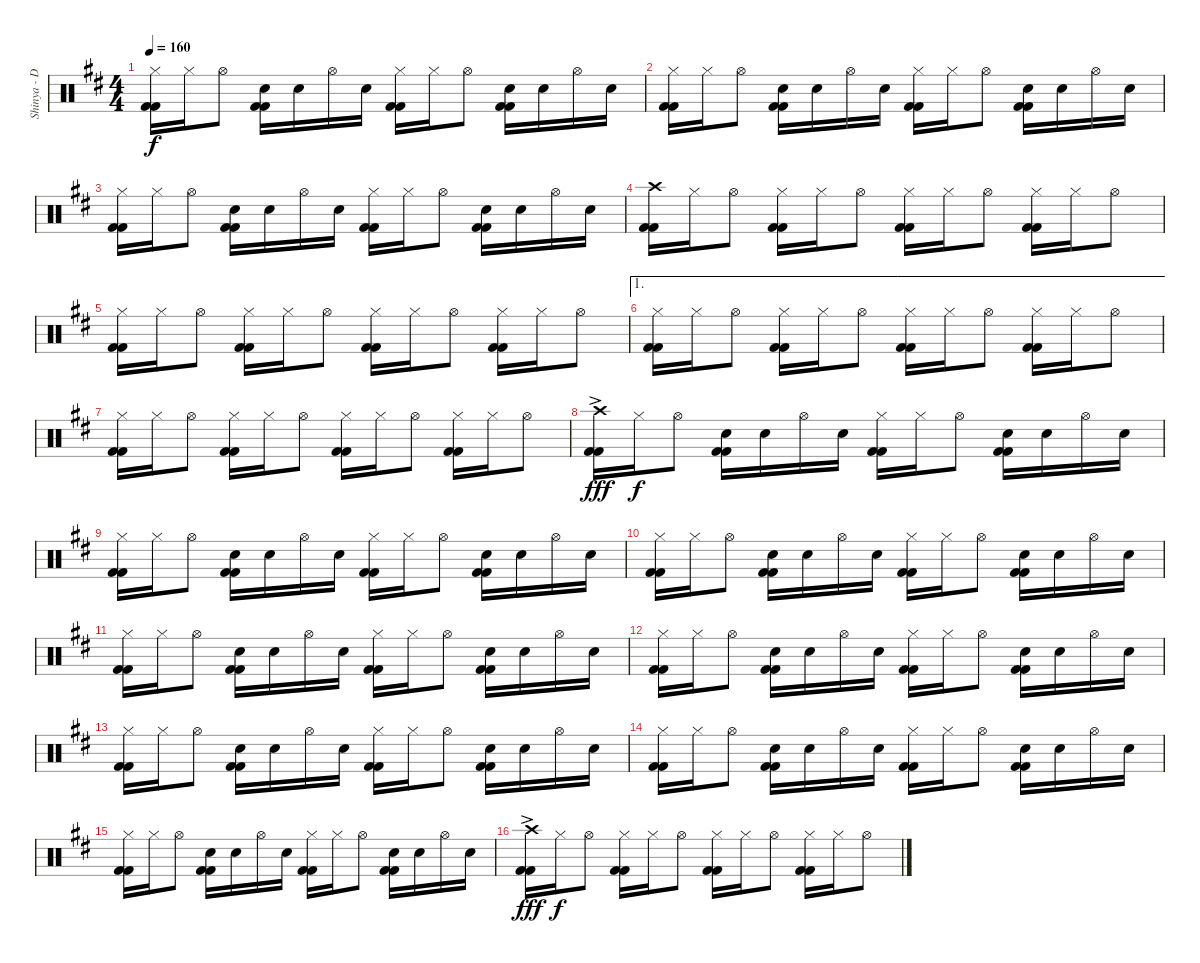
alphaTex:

\track ("Shinya - Drums" "Shinya - D") {instrument percussion}
\staff {score}
\articulation defaults
\ts (4 4)
\tempo 160
\clef neutral
\ks d
("Hi-Hat (closed)" "Kick (hit) 2" "Kick (hit) 2").16{dy f} "Hi-Hat (closed)".16 "Hi-Hat (open)".8 ("Snare (hit) 2" "Kick (hit) 2" "Kick (hit) 2").16 "Snare (hit) 2".16 "Hi-Hat (open)".16 "Snare (hit) 2".16 ("Hi-Hat (closed)" "Kick (hit) 2" "Kick (hit) 2").16 "Hi-Hat (closed)".16 "Hi-Hat (open)".8 ("Snare (hit) 2" "Kick (hit) 2" "Kick (hit) 2").16 "Snare (hit) 2".16 "Hi-Hat (open)".16 "Snare (hit) 2".16 |
("Hi-Hat (closed)" "Kick (hit) 2" "Kick (hit) 2").16 "Hi-Hat (closed)".16 "Hi-Hat (open)".8 ("Snare (hit) 2" "Kick (hit) 2" "Kick (hit) 2").16 "Snare (hit) 2".16 "Hi-Hat (open)".16 "Snare (hit) 2".16 ("Hi-Hat (closed)" "Kick (hit) 2" "Kick (hit) 2").16 "Hi-Hat (closed)".16 "Hi-Hat (open)".8 ("Snare (hit) 2" "Kick (hit) 2" "Kick (hit) 2").16 "Snare (hit) 2".16 "Hi-Hat (open)".16 "Snare (hit) 2".16 |
("Hi-Hat (closed)" "Kick (hit) 2" "Kick (hit) 2").16 "Hi-Hat (closed)".16 "Hi-Hat (open)".8 ("Snare (hit) 2" "Kick (hit) 2" "Kick (hit) 2").16 "Snare (hit) 2".16 "Hi-Hat (open)".16 "Snare (hit) 2".16 ("Hi-Hat (closed)" "Kick (hit) 2" "Kick (hit) 2").16 "Hi-Hat (closed)".16 "Hi-Hat (open)".8 ("Snare (hit) 2" "Kick (hit) 2" "Kick (hit) 2").16 "Snare (hit) 2".16 "Hi-Hat (open)".16 "Snare (hit) 2".16 |
("Crash high (hit)" "Kick (hit) 2" "Kick (hit) 2").16 "Hi-Hat (closed)".16 "Hi-Hat (open)".8 ("Hi-Hat (closed)" "Kick (hit) 2" "Kick (hit) 2").16 "Hi-Hat (closed)".16 "Hi-Hat (open)".8 ("Hi-Hat (closed)" "Kick (hit) 2" "Kick (hit) 2").16 "Hi-Hat (closed)".16 "Hi-Hat (open)".8 ("Hi-Hat (closed)" "Kick (hit) 2" "Kick (hit) 2").16 "Hi-Hat (closed)".16 "Hi-Hat (open)".8 |
("Hi-Hat (closed)" "Kick (hit) 2" "Kick (hit) 2").16 "Hi-Hat (closed)".16 "Hi-Hat (open)".8 ("Hi-Hat (closed)" "Kick (hit) 2" "Kick (hit) 2").16 "Hi-Hat (closed)".16 "Hi-Hat (open)".8 ("Hi-Hat (closed)" "Kick (hit) 2" "Kick (hit) 2").16 "Hi-Hat (closed)".16 "Hi-Hat (open)".8 ("Hi-Hat (closed)" "Kick (hit) 2" "Kick (hit) 2").16 "Hi-Hat (closed)".16 "Hi-Hat (open)".8 |
\ae 1
("Hi-Hat (closed)" "Kick (hit) 2" "Kick (hit) 2").16 "Hi-Hat (closed)".16 "Hi-Hat (open)".8 ("Hi-Hat (closed)" "Kick (hit) 2" "Kick (hit) 2").16 "Hi-Hat (closed)".16 "Hi-Hat (open)".8 ("Hi-Hat (closed)" "Kick (hit) 2" "Kick (hit) 2").16 "Hi-Hat (closed)".16 "Hi-Hat (open)".8 ("Hi-Hat (closed)" "Kick (hit) 2" "Kick (hit) 2").16 "Hi-Hat (closed)".16 "Hi-Hat (open)".8 |
("Hi-Hat (closed)" "Kick (hit) 2" "Kick (hit) 2").16 "Hi-Hat (closed)".16 "Hi-Hat (open)".8 ("Hi-Hat (closed)" "Kick (hit) 2" "Kick (hit) 2").16 "Hi-Hat (closed)".16 "Hi-Hat (open)".8 ("Hi-Hat (closed)" "Kick (hit) 2" "Kick (hit) 2").16 "Hi-Hat (closed)".16 "Hi-Hat (open)".8 ("Hi-Hat (closed)" "Kick (hit) 2" "Kick (hit) 2").16 "Hi-Hat (closed)".16 "Hi-Hat (open)".8 |
("Crash high (hit)"{ac} "Kick (hit) 2" "Kick (hit) 2").16{dy fff} "Hi-Hat (closed)".16{dy f} "Hi-Hat (open)".8 ("Snare (hit) 2" "Kick (hit) 2" "Kick (hit) 2").16 "Snare (hit) 2".16 "Hi-Hat (open)".16 "Snare (hit) 2".16 ("Hi-Hat (closed)" "Kick (hit) 2" "Kick (hit) 2").16 "Hi-Hat (closed)".16 "Hi-Hat (open)".8 ("Snare (hit) 2" "Kick (hit) 2" "Kick (hit) 2").16 "Snare (hit) 2".16 "Hi-Hat (open)".16 "Snare (hit) 2".16 |
("Hi-Hat (closed)" "Kick (hit) 2" "Kick (hit) 2").16 "Hi-Hat (closed)".16 "Hi-Hat (open)".8 ("Snare (hit) 2" "Kick (hit) 2" "Kick (hit) 2").16 "Snare (hit) 2".16 "Hi-Hat (open)".16 "Snare (hit) 2".16 ("Hi-Hat (closed)" "Kick (hit) 2" "Kick (hit) 2").16 "Hi-Hat (closed)".16 "Hi-Hat (open)".8 ("Snare (hit) 2" "Kick (hit) 2" "Kick (hit) 2").16 "Snare (hit) 2".16 "Hi-Hat (open)".16 "Snare (hit) 2".16 |
("Hi-Hat (closed)" "Kick (hit) 2" "Kick (hit) 2").16 "Hi-Hat (closed)".16 "Hi-Hat (open)".8 ("Snare (hit) 2" "Kick (hit) 2" "Kick (hit) 2").16 "Snare (hit) 2".16 "Hi-Hat (open)".16 "Snare (hit) 2".16 ("Hi-Hat (closed)" "Kick (hit) 2" "Kick (hit) 2").16 "Hi-Hat (closed)".16 "Hi-Hat (open)".8 ("Snare (hit) 2" "Kick (hit) 2" "Kick (hit) 2").16 "Snare (hit) 2".16 "Hi-Hat (open)".16 "Snare (hit) 2".16 |
("Hi-Hat (closed)" "Kick (hit) 2" "Kick (hit) 2").16 "Hi-Hat (closed)".16 "Hi-Hat (open)".8 ("Snare (hit) 2" "Kick (hit) 2" "Kick (hit) 2").16 "Snare (hit) 2".16 "Hi-Hat (open)".16 "Snare (hit) 2".16 ("Hi-Hat (closed)" "Kick (hit) 2" "Kick (hit) 2").16 "Hi-Hat (closed)".16 "Hi-Hat (open)".8 ("Snare (hit) 2" "Kick (hit) 2" "Kick (hit) 2").16 "Snare (hit) 2".16 "Hi-Hat (open)".16 "Snare (hit) 2".16 |
("Hi-Hat (closed)" "Kick (hit) 2" "Kick (hit) 2").16 "Hi-Hat (closed)".16 "Hi-Hat (open)".8 ("Snare (hit) 2" "Kick (hit) 2" "Kick (hit) 2").16 "Snare (hit) 2".16 "Hi-Hat (open)".16 "Snare (hit) 2".16 ("Hi-Hat (closed)" "Kick (hit) 2" "Kick (hit) 2").16 "Hi-Hat (closed)".16 "Hi-Hat (open)".8 ("Snare (hit) 2" "Kick (hit) 2" "Kick (hit) 2").16 "Snare (hit) 2".16 "Hi-Hat (open)".16 "Snare (hit) 2".16 |
("Hi-Hat (closed)" "Kick (hit) 2" "Kick (hit) 2").16 "Hi-Hat (closed)".16 "Hi-Hat (open)".8 ("Snare (hit) 2" "Kick (hit) 2" "Kick (hit) 2").16 "Snare (hit) 2".16 "Hi-Hat (open)".16 "Snare (hit) 2".16 ("Hi-Hat (closed)" "Kick (hit) 2" "Kick (hit) 2").16 "Hi-Hat (closed)".16 "Hi-Hat (open)".8 ("Snare (hit) 2" "Kick (hit) 2" "Kick (hit) 2").16 "Snare (hit) 2".16 "Hi-Hat (open)".16 "Snare (hit) 2".16 |
("Hi-Hat (closed)" "Kick (hit) 2" "Kick (hit) 2").16 "Hi-Hat (closed)".16 "Hi-Hat (open)".8 ("Snare (hit) 2" "Kick (hit) 2" "Kick (hit) 2").16 "Snare (hit) 2".16 "Hi-Hat (open)".16 "Snare (hit) 2".16 ("Hi-Hat (closed)" "Kick (hit) 2" "Kick (hit) 2").16 "Hi-Hat (closed)".16 "Hi-Hat (open)".8 ("Snare (hit) 2" "Kick (hit) 2" "Kick (hit) 2").16 "Snare (hit) 2".16 "Hi-Hat (open)".16 "Snare (hit) 2".16 |
("Hi-Hat (closed)" "Kick (hit) 2" "Kick (hit) 2").16 "Hi-Hat (closed)".16 "Hi-Hat (open)".8 ("Snare (hit) 2" "Kick (hit) 2" "Kick (hit) 2").16 "Snare (hit) 2".16 "Hi-Hat (open)".16 "Snare (hit) 2".16 ("Hi-Hat (closed)" "Kick (hit) 2" "Kick (hit) 2").16 "Hi-Hat (closed)".16 "Hi-Hat (open)".8 ("Snare (hit) 2" "Kick (hit) 2" "Kick (hit) 2").16 "Snare (hit) 2".16 "Hi-Hat (open)".16 "Snare (hit) 2".16 |
("Crash high (hit)"{ac} "Kick (hit) 2" "Kick (hit) 2").16{dy fff} "Hi-Hat (closed)".16{dy f} "Hi-Hat (open)".8 ("Hi-Hat (closed)" "Kick (hit) 2" "Kick (hit) 2").16 "Hi-Hat (closed)".16 "Hi-Hat (open)".8 ("Hi-Hat (closed)" "Kick (hit) 2" "Kick (hit) 2").16 "Hi-Hat (closed)".16 "Hi-Hat (open)".8 ("Hi-Hat (closed)" "Kick (hit) 2" "Kick (hit) 2").16 "Hi-Hat (closed)".16 "Hi-Hat (open)".8
